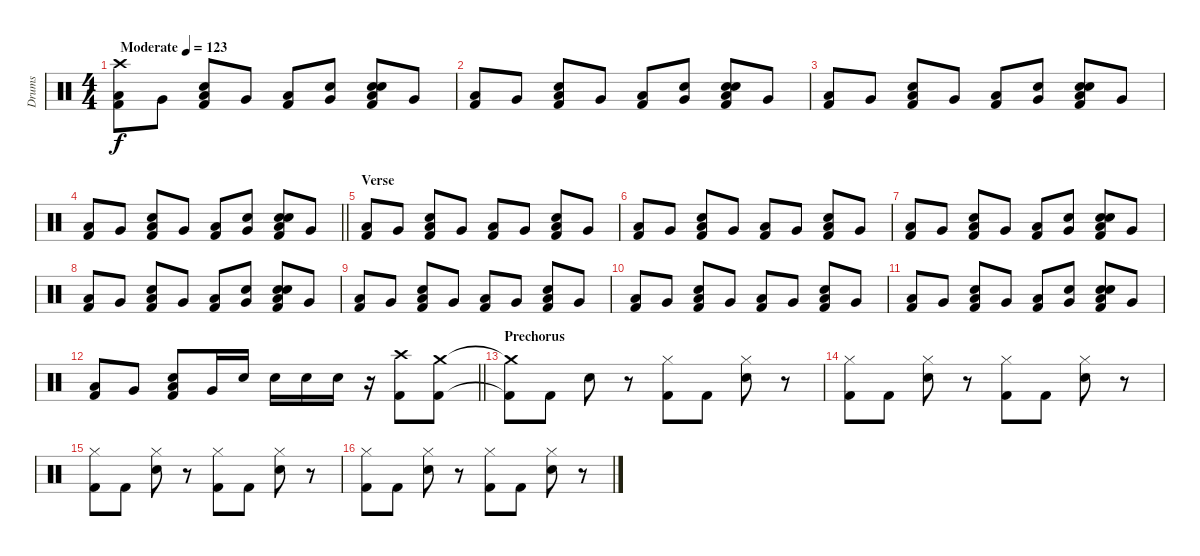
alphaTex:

\track ("Drums" "Drums") {instrument percussion}
\staff {score}
\articulation defaults
\ts (4 4)
\tempo (123 "Moderate")
\clef neutral
\ks c
("Crash high (hit)" "Low Tom (hit)" "Kick (hit) 2").8{dy f} "Very Low Tom (hit)".8 ("Electric Snare (hit)" "Low Tom (hit)" "Kick (hit) 2").8 "Very Low Tom (hit)".8 ("Low Tom (hit)" "Kick (hit) 2").8 ("Hand Clap (hit)" "Very Low Tom (hit)").8 ("Hand Clap (hit)" "Electric Snare (hit)" "Low Tom (hit)" "Kick (hit) 2").8 "Very Low Tom (hit)".8 |
("Low Tom (hit)" "Kick (hit) 2").8 "Very Low Tom (hit)".8 ("Electric Snare (hit)" "Low Tom (hit)" "Kick (hit) 2").8 "Very Low Tom (hit)".8 ("Low Tom (hit)" "Kick (hit) 2").8 ("Hand Clap (hit)" "Very Low Tom (hit)").8 ("Hand Clap (hit)" "Electric Snare (hit)" "Low Tom (hit)" "Kick (hit) 2").8 "Very Low Tom (hit)".8 |
("Low Tom (hit)" "Kick (hit) 2").8 "Very Low Tom (hit)".8 ("Electric Snare (hit)" "Low Tom (hit)" "Kick (hit) 2").8 "Very Low Tom (hit)".8 ("Low Tom (hit)" "Kick (hit) 2").8 ("Hand Clap (hit)" "Very Low Tom (hit)").8 ("Hand Clap (hit)" "Electric Snare (hit)" "Low Tom (hit)" "Kick (hit) 2").8 "Very Low Tom (hit)".8 |
\barLineRight lightlight
("Low Tom (hit)" "Kick (hit) 2").8 "Very Low Tom (hit)".8 ("Electric Snare (hit)" "Low Tom (hit)" "Kick (hit) 2").8 "Very Low Tom (hit)".8 ("Low Tom (hit)" "Kick (hit) 2").8 ("Hand Clap (hit)" "Very Low Tom (hit)").8 ("Hand Clap (hit)" "Electric Snare (hit)" "Low Tom (hit)" "Kick (hit) 2").8 "Very Low Tom (hit)".8 |
\section ("" "Verse")
("Low Tom (hit)" "Kick (hit) 2").8 "Very Low Tom (hit)".8 ("Electric Snare (hit)" "Low Tom (hit)" "Kick (hit) 2").8 "Very Low Tom (hit)".8 ("Low Tom (hit)" "Kick (hit) 2").8 "Very Low Tom (hit)".8 ("Electric Snare (hit)" "Low Tom (hit)" "Kick (hit) 2").8 "Very Low Tom (hit)".8 |
("Low Tom (hit)" "Kick (hit) 2").8 "Very Low Tom (hit)".8 ("Electric Snare (hit)" "Low Tom (hit)" "Kick (hit) 2").8 "Very Low Tom (hit)".8 ("Low Tom (hit)" "Kick (hit) 2").8 "Very Low Tom (hit)".8 ("Electric Snare (hit)" "Low Tom (hit)" "Kick (hit) 2").8 "Very Low Tom (hit)".8 |
("Low Tom (hit)" "Kick (hit) 2").8 "Very Low Tom (hit)".8 ("Electric Snare (hit)" "Low Tom (hit)" "Kick (hit) 2").8 "Very Low Tom (hit)".8 ("Low Tom (hit)" "Kick (hit) 2").8 ("Hand Clap (hit)" "Very Low Tom (hit)").8 ("Hand Clap (hit)" "Electric Snare (hit)" "Low Tom (hit)" "Kick (hit) 2").8 "Very Low Tom (hit)".8 |
("Low Tom (hit)" "Kick (hit) 2").8 "Very Low Tom (hit)".8 ("Electric Snare (hit)" "Low Tom (hit)" "Kick (hit) 2").8 "Very Low Tom (hit)".8 ("Low Tom (hit)" "Kick (hit) 2").8 ("Hand Clap (hit)" "Very Low Tom (hit)").8 ("Hand Clap (hit)" "Electric Snare (hit)" "Low Tom (hit)" "Kick (hit) 2").8 "Very Low Tom (hit)".8 |
("Low Tom (hit)" "Kick (hit) 2").8 "Very Low Tom (hit)".8 ("Electric Snare (hit)" "Low Tom (hit)" "Kick (hit) 2").8 "Very Low Tom (hit)".8 ("Low Tom (hit)" "Kick (hit) 2").8 "Very Low Tom (hit)".8 ("Electric Snare (hit)" "Low Tom (hit)" "Kick (hit) 2").8 "Very Low Tom (hit)".8 |
("Low Tom (hit)" "Kick (hit) 2").8 "Very Low Tom (hit)".8 ("Electric Snare (hit)" "Low Tom (hit)" "Kick (hit) 2").8 "Very Low Tom (hit)".8 ("Low Tom (hit)" "Kick (hit) 2").8 "Very Low Tom (hit)".8 ("Electric Snare (hit)" "Low Tom (hit)" "Kick (hit) 2").8 "Very Low Tom (hit)".8 |
("Low Tom (hit)" "Kick (hit) 2").8 "Very Low Tom (hit)".8 ("Electric Snare (hit)" "Low Tom (hit)" "Kick (hit) 2").8 "Very Low Tom (hit)".8 ("Low Tom (hit)" "Kick (hit) 2").8 ("Hand Clap (hit)" "Very Low Tom (hit)").8 ("Hand Clap (hit)" "Electric Snare (hit)" "Low Tom (hit)" "Kick (hit) 2").8 "Very Low Tom (hit)".8 |
\barLineRight lightlight
("Low Tom (hit)" "Kick (hit) 2").8 "Very Low Tom (hit)".8 ("Electric Snare (hit)" "Low Tom (hit)" "Kick (hit) 2").8 "Very Low Tom (hit)".16 "Electric Snare (hit)".16 "Electric Snare (hit)".16 "Electric Snare (hit)".16 "Electric Snare (hit)".16 r.16 ("Crash high (hit)" "Kick (hit) 2").8 ("Crash medium (hit)" "Kick (hit) 2").8 |
\section ("" "Prechorus")
("Crash medium (hit)"{t} "Kick (hit) 2"{t}).8 "Kick (hit) 2".8 "Electric Snare (hit)".8 r.8 ("Hi-Hat (closed)" "Kick (hit) 2").8 "Kick (hit) 2".8 ("Hi-Hat (closed)" "Electric Snare (hit)").8 r.8 |
("Hi-Hat (closed)" "Kick (hit) 2").8 "Kick (hit) 2".8 ("Hi-Hat (closed)" "Electric Snare (hit)").8 r.8 ("Hi-Hat (closed)" "Kick (hit) 2").8 "Kick (hit) 2".8 ("Hi-Hat (closed)" "Electric Snare (hit)").8 r.8 |
("Hi-Hat (closed)" "Kick (hit) 2").8 "Kick (hit) 2".8 ("Hi-Hat (closed)" "Electric Snare (hit)").8 r.8 ("Hi-Hat (closed)" "Kick (hit) 2").8 "Kick (hit) 2".8 ("Hi-Hat (closed)" "Electric Snare (hit)").8 r.8 |
("Hi-Hat (closed)" "Kick (hit) 2").8 "Kick (hit) 2".8 ("Hi-Hat (closed)" "Electric Snare (hit)").8 r.8 ("Hi-Hat (closed)" "Kick (hit) 2").8 "Kick (hit) 2".8 ("Hi-Hat (closed)" "Electric Snare (hit)").8 r.8
